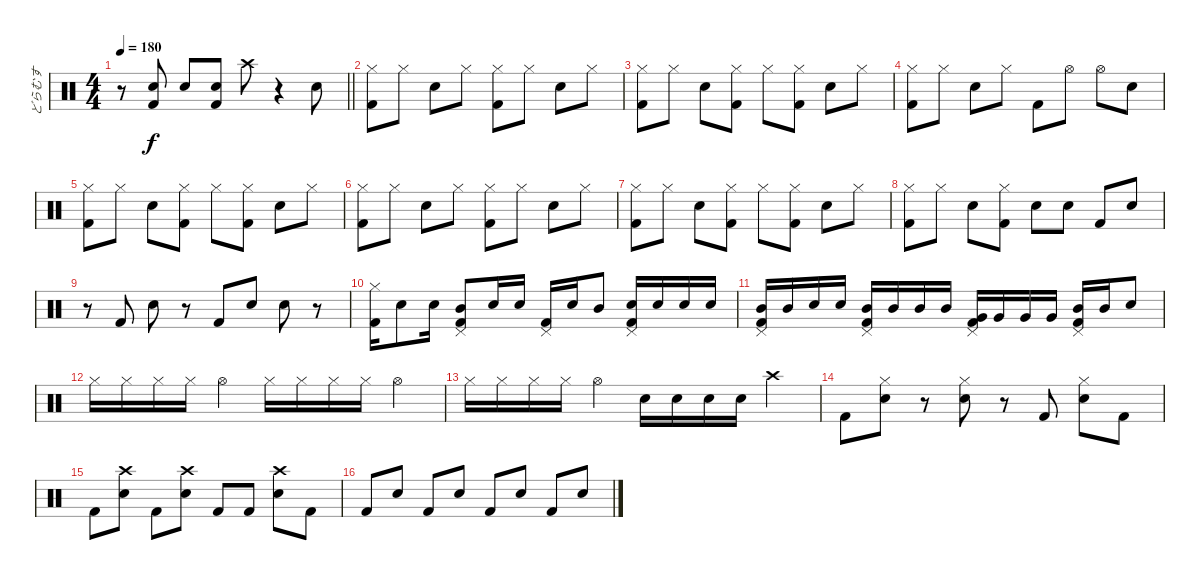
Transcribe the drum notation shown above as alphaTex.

\track ("どらむす" "どらむす") {instrument percussion}
\staff {score}
\articulation defaults
\ts (4 4)
\tempo 180
\clef neutral
\barLineRight lightlight
\ks c
r.8{dy f} ("Electric Snare (hit)" "Kick (hit) 2").8 "Electric Snare (hit)".8 ("Electric Snare (hit)" "Kick (hit) 2").8 "Crash high (hit)".8 r.4 "Electric Snare (hit)".8 |
("Hi-Hat (closed)" "Kick (hit) 2").8 "Hi-Hat (closed)".8 "Electric Snare (hit)".8 "Hi-Hat (closed)".8 ("Hi-Hat (closed)" "Kick (hit) 2").8 "Hi-Hat (closed)".8 "Electric Snare (hit)".8 "Hi-Hat (closed)".8 |
("Hi-Hat (closed)" "Kick (hit) 2").8 "Hi-Hat (closed)".8 "Electric Snare (hit)".8 ("Hi-Hat (closed)" "Kick (hit) 2").8 "Hi-Hat (closed)".8 ("Hi-Hat (closed)" "Kick (hit) 2").8 "Electric Snare (hit)".8 "Hi-Hat (closed)".8 |
("Hi-Hat (closed)" "Kick (hit) 2").8 "Hi-Hat (closed)".8 "Electric Snare (hit)".8 "Hi-Hat (closed)".8 "Kick (hit) 2".8 "Hi-Hat (open)".8 "Hi-Hat (open)".8 "Electric Snare (hit)".8 |
("Hi-Hat (closed)" "Kick (hit) 2").8 "Hi-Hat (closed)".8 "Electric Snare (hit)".8 ("Hi-Hat (closed)" "Kick (hit) 2").8 "Hi-Hat (closed)".8 ("Hi-Hat (closed)" "Kick (hit) 2").8 "Electric Snare (hit)".8 "Hi-Hat (closed)".8 |
("Hi-Hat (closed)" "Kick (hit) 2").8 "Hi-Hat (closed)".8 "Electric Snare (hit)".8 "Hi-Hat (closed)".8 ("Hi-Hat (closed)" "Kick (hit) 2").8 "Hi-Hat (closed)".8 "Electric Snare (hit)".8 "Hi-Hat (closed)".8 |
("Hi-Hat (closed)" "Kick (hit) 2").8 "Hi-Hat (closed)".8 "Electric Snare (hit)".8 ("Hi-Hat (closed)" "Kick (hit) 2").8 "Hi-Hat (closed)".8 ("Hi-Hat (closed)" "Kick (hit) 2").8 "Electric Snare (hit)".8 "Hi-Hat (closed)".8 |
("Hi-Hat (closed)" "Kick (hit) 2").8 "Hi-Hat (closed)".8 "Electric Snare (hit)".8 ("Hi-Hat (closed)" "Kick (hit) 2").8 "Electric Snare (hit)".8 "Electric Snare (hit)".8 "Kick (hit) 2".8 "Electric Snare (hit)".8 |
r.8 "Kick (hit) 2".8 "Electric Snare (hit)".8 r.8 "Kick (hit) 2".8 "Electric Snare (hit)".8 "Electric Snare (hit)".8 r.8 |
("Hi-Hat (closed)" "Kick (hit) 2").16 "Electric Snare (hit)".8 "Electric Snare (hit)".16 ("Mid Tom (hit)" "Kick (hit) 2" "Pedal Hi-Hat (hit)").8 "Electric Snare (hit)".16 "Electric Snare (hit)".16 ("Kick (hit) 2" "Pedal Hi-Hat (hit)").16 "Electric Snare (hit)".16 "Mid Tom (hit)".8 ("Electric Snare (hit)" "Kick (hit) 2" "Pedal Hi-Hat (hit)").16 "Electric Snare (hit)".16 "Electric Snare (hit)".16 "Electric Snare (hit)".16 |
("Mid Tom (hit)" "Kick (hit) 2" "Pedal Hi-Hat (hit)").16 "Mid Tom (hit)".16 "Electric Snare (hit)".16 "Electric Snare (hit)".16 ("Mid Tom (hit)" "Kick (hit) 2" "Pedal Hi-Hat (hit)").16 "Mid Tom (hit)".16 "Mid Tom (hit)".16 "Mid Tom (hit)".16 ("Very Low Tom (hit)" "Kick (hit) 2" "Pedal Hi-Hat (hit)").16 "Very Low Tom (hit)".16 "Very Low Tom (hit)".16 "Very Low Tom (hit)".16 ("Mid Tom (hit)" "Kick (hit) 2" "Pedal Hi-Hat (hit)").16 "Mid Tom (hit)".16 "Electric Snare (hit)".8 |
"Hi-Hat (closed)".16 "Hi-Hat (closed)".16 "Hi-Hat (closed)".16 "Hi-Hat (closed)".16 "Hi-Hat (open)".4 "Hi-Hat (closed)".16 "Hi-Hat (closed)".16 "Hi-Hat (closed)".16 "Hi-Hat (closed)".16 "Hi-Hat (open)".4 |
"Hi-Hat (closed)".16 "Hi-Hat (closed)".16 "Hi-Hat (closed)".16 "Hi-Hat (closed)".16 "Hi-Hat (open)".4 "Electric Snare (hit)".16 "Electric Snare (hit)".16 "Electric Snare (hit)".16 "Electric Snare (hit)".16 "Crash high (hit)".4 |
"Kick (hit) 2".8 ("Hi-Hat (closed)" "Electric Snare (hit)").8 r.8 ("Hi-Hat (closed)" "Electric Snare (hit)").8 r.8 "Kick (hit) 2".8 ("Hi-Hat (closed)" "Electric Snare (hit)").8 "Kick (hit) 2".8 |
"Kick (hit) 2".8 ("Crash high (hit)" "Electric Snare (hit)").8 "Kick (hit) 2".8 ("Crash high (hit)" "Electric Snare (hit)").8 "Kick (hit) 2".8 "Kick (hit) 2".8 ("Crash high (hit)" "Electric Snare (hit)").8 "Kick (hit) 2".8 |
"Kick (hit) 2".8 "Electric Snare (hit)".8 "Kick (hit) 2".8 "Electric Snare (hit)".8 "Kick (hit) 2".8 "Electric Snare (hit)".8 "Kick (hit) 2".8 "Electric Snare (hit)".8
